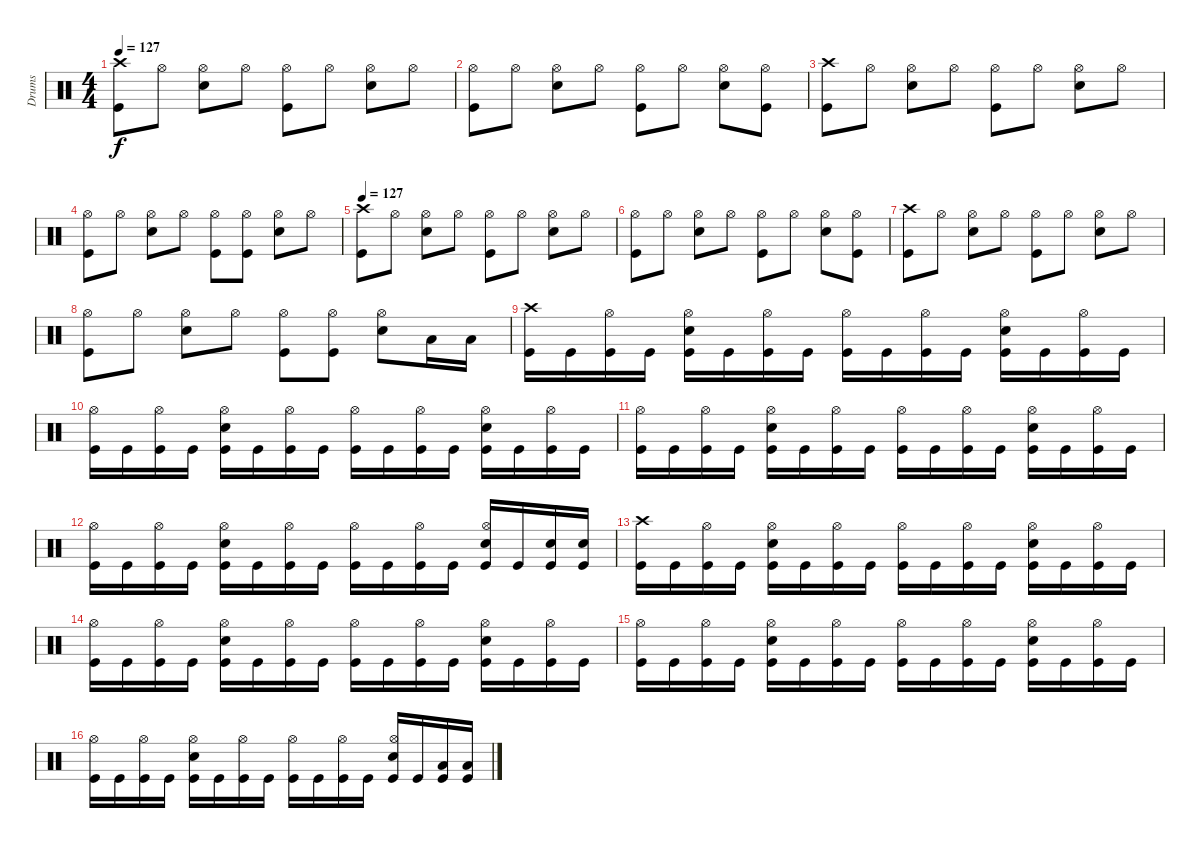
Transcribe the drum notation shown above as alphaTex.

\track ("Drums" "Drums") {instrument percussion}
\staff {score}
\articulation defaults
\ts (4 4)
\tempo 127
\clef neutral
\ks c
("Crash high (hit)" "Kick (hit)").8{dy f} "Hi-Hat (open)".8 ("Hi-Hat (open)" "Snare (hit) 2").8 "Hi-Hat (open)".8 ("Hi-Hat (open)" "Kick (hit)").8 "Hi-Hat (open)".8 ("Hi-Hat (open)" "Snare (hit) 2").8 "Hi-Hat (open)".8 |
("Hi-Hat (open)" "Kick (hit)").8 "Hi-Hat (open)".8 ("Hi-Hat (open)" "Snare (hit) 2").8 "Hi-Hat (open)".8 ("Hi-Hat (open)" "Kick (hit)").8 "Hi-Hat (open)".8 ("Hi-Hat (open)" "Snare (hit) 2").8 ("Hi-Hat (open)" "Kick (hit)").8 |
("Crash high (hit)" "Kick (hit)").8 "Hi-Hat (open)".8 ("Hi-Hat (open)" "Snare (hit) 2").8 "Hi-Hat (open)".8 ("Hi-Hat (open)" "Kick (hit)").8 "Hi-Hat (open)".8 ("Hi-Hat (open)" "Snare (hit) 2").8 "Hi-Hat (open)".8 |
("Hi-Hat (open)" "Kick (hit)").8 "Hi-Hat (open)".8 ("Hi-Hat (open)" "Snare (hit) 2").8 "Hi-Hat (open)".8 ("Hi-Hat (open)" "Kick (hit)").8 ("Hi-Hat (open)" "Kick (hit)").8 ("Hi-Hat (open)" "Snare (hit) 2").8 "Hi-Hat (open)".8 |
\tempo 127
("Crash high (hit)" "Kick (hit)").8 "Hi-Hat (open)".8 ("Hi-Hat (open)" "Snare (hit) 2").8 "Hi-Hat (open)".8 ("Hi-Hat (open)" "Kick (hit)").8 "Hi-Hat (open)".8 ("Hi-Hat (open)" "Snare (hit) 2").8 "Hi-Hat (open)".8 |
("Hi-Hat (open)" "Kick (hit)").8 "Hi-Hat (open)".8 ("Hi-Hat (open)" "Snare (hit) 2").8 "Hi-Hat (open)".8 ("Hi-Hat (open)" "Kick (hit)").8 "Hi-Hat (open)".8 ("Hi-Hat (open)" "Snare (hit) 2").8 ("Hi-Hat (open)" "Kick (hit)").8 |
("Crash high (hit)" "Kick (hit)").8 "Hi-Hat (open)".8 ("Hi-Hat (open)" "Snare (hit) 2").8 "Hi-Hat (open)".8 ("Hi-Hat (open)" "Kick (hit)").8 "Hi-Hat (open)".8 ("Hi-Hat (open)" "Snare (hit) 2").8 "Hi-Hat (open)".8 |
("Hi-Hat (open)" "Kick (hit)").8 "Hi-Hat (open)".8 ("Hi-Hat (open)" "Snare (hit) 2").8 "Hi-Hat (open)".8 ("Hi-Hat (open)" "Kick (hit)").8 ("Hi-Hat (open)" "Kick (hit)").8 ("Hi-Hat (open)" "Snare (hit) 2").8 "Low Floor Tom (hit)".16 "Low Floor Tom (hit)".16 |
("Crash high (hit)" "Kick (hit)").16 "Kick (hit)".16 ("Hi-Hat (open)" "Kick (hit)").16 "Kick (hit)".16 ("Hi-Hat (open)" "Snare (hit) 2" "Kick (hit)").16 "Kick (hit)".16 ("Hi-Hat (open)" "Kick (hit)").16 "Kick (hit)".16 ("Hi-Hat (open)" "Kick (hit)").16 "Kick (hit)".16 ("Hi-Hat (open)" "Kick (hit)").16 "Kick (hit)".16 ("Hi-Hat (open)" "Snare (hit) 2" "Kick (hit)").16 "Kick (hit)".16 ("Hi-Hat (open)" "Kick (hit)").16 "Kick (hit)".16 |
("Hi-Hat (open)" "Kick (hit)").16 "Kick (hit)".16 ("Hi-Hat (open)" "Kick (hit)").16 "Kick (hit)".16 ("Hi-Hat (open)" "Snare (hit) 2" "Kick (hit)").16 "Kick (hit)".16 ("Hi-Hat (open)" "Kick (hit)").16 "Kick (hit)".16 ("Hi-Hat (open)" "Kick (hit)").16 "Kick (hit)".16 ("Hi-Hat (open)" "Kick (hit)").16 "Kick (hit)".16 ("Hi-Hat (open)" "Snare (hit) 2" "Kick (hit)").16 "Kick (hit)".16 ("Hi-Hat (open)" "Kick (hit)").16 "Kick (hit)".16 |
("Hi-Hat (open)" "Kick (hit)").16 "Kick (hit)".16 ("Hi-Hat (open)" "Kick (hit)").16 "Kick (hit)".16 ("Hi-Hat (open)" "Snare (hit) 2" "Kick (hit)").16 "Kick (hit)".16 ("Hi-Hat (open)" "Kick (hit)").16 "Kick (hit)".16 ("Hi-Hat (open)" "Kick (hit)").16 "Kick (hit)".16 ("Hi-Hat (open)" "Kick (hit)").16 "Kick (hit)".16 ("Hi-Hat (open)" "Snare (hit) 2" "Kick (hit)").16 "Kick (hit)".16 ("Hi-Hat (open)" "Kick (hit)").16 "Kick (hit)".16 |
("Hi-Hat (open)" "Kick (hit)").16 "Kick (hit)".16 ("Hi-Hat (open)" "Kick (hit)").16 "Kick (hit)".16 ("Hi-Hat (open)" "Snare (hit) 2" "Kick (hit)").16 "Kick (hit)".16 ("Hi-Hat (open)" "Kick (hit)").16 "Kick (hit)".16 ("Hi-Hat (open)" "Kick (hit)").16 "Kick (hit)".16 ("Hi-Hat (open)" "Kick (hit)").16 "Kick (hit)".16 ("Hi-Hat (open)" "Snare (hit) 2" "Kick (hit)").16 "Kick (hit)".16 ("Snare (hit) 2" "Kick (hit)").16 ("Snare (hit) 2" "Kick (hit)").16 |
("Crash high (hit)" "Kick (hit)").16 "Kick (hit)".16 ("Hi-Hat (open)" "Kick (hit)").16 "Kick (hit)".16 ("Hi-Hat (open)" "Snare (hit) 2" "Kick (hit)").16 "Kick (hit)".16 ("Hi-Hat (open)" "Kick (hit)").16 "Kick (hit)".16 ("Hi-Hat (open)" "Kick (hit)").16 "Kick (hit)".16 ("Hi-Hat (open)" "Kick (hit)").16 "Kick (hit)".16 ("Hi-Hat (open)" "Snare (hit) 2" "Kick (hit)").16 "Kick (hit)".16 ("Hi-Hat (open)" "Kick (hit)").16 "Kick (hit)".16 |
("Hi-Hat (open)" "Kick (hit)").16 "Kick (hit)".16 ("Hi-Hat (open)" "Kick (hit)").16 "Kick (hit)".16 ("Hi-Hat (open)" "Snare (hit) 2" "Kick (hit)").16 "Kick (hit)".16 ("Hi-Hat (open)" "Kick (hit)").16 "Kick (hit)".16 ("Hi-Hat (open)" "Kick (hit)").16 "Kick (hit)".16 ("Hi-Hat (open)" "Kick (hit)").16 "Kick (hit)".16 ("Hi-Hat (open)" "Snare (hit) 2" "Kick (hit)").16 "Kick (hit)".16 ("Hi-Hat (open)" "Kick (hit)").16 "Kick (hit)".16 |
("Hi-Hat (open)" "Kick (hit)").16 "Kick (hit)".16 ("Hi-Hat (open)" "Kick (hit)").16 "Kick (hit)".16 ("Hi-Hat (open)" "Snare (hit) 2" "Kick (hit)").16 "Kick (hit)".16 ("Hi-Hat (open)" "Kick (hit)").16 "Kick (hit)".16 ("Hi-Hat (open)" "Kick (hit)").16 "Kick (hit)".16 ("Hi-Hat (open)" "Kick (hit)").16 "Kick (hit)".16 ("Hi-Hat (open)" "Snare (hit) 2" "Kick (hit)").16 "Kick (hit)".16 ("Hi-Hat (open)" "Kick (hit)").16 "Kick (hit)".16 |
("Hi-Hat (open)" "Kick (hit)").16 "Kick (hit)".16 ("Hi-Hat (open)" "Kick (hit)").16 "Kick (hit)".16 ("Hi-Hat (open)" "Snare (hit) 2" "Kick (hit)").16 "Kick (hit)".16 ("Hi-Hat (open)" "Kick (hit)").16 "Kick (hit)".16 ("Hi-Hat (open)" "Kick (hit)").16 "Kick (hit)".16 ("Hi-Hat (open)" "Kick (hit)").16 "Kick (hit)".16 ("Hi-Hat (open)" "Snare (hit) 2" "Kick (hit)").16 "Kick (hit)".16 ("Low Floor Tom (hit)" "Kick (hit)").16 ("Low Floor Tom (hit)" "Kick (hit)").16
